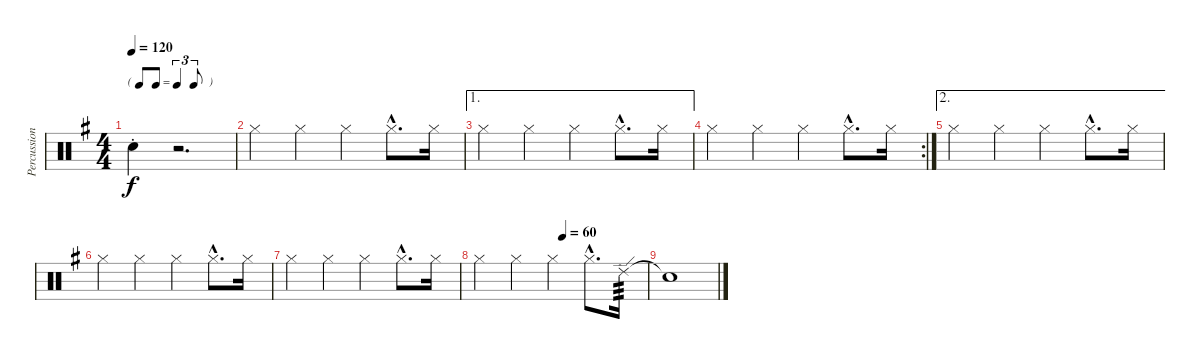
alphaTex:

\track ("Percussion" "Percussion") {instrument percussion}
\staff {score}
\articulation defaults
\ts (4 4)
\tf triplet8th
\tempo 120
\clef neutral
\ks g "Snare (hit) 2"{st}.4{dy f}
r.2{d} |
"Hi-Hat (closed)".4 "Hi-Hat (closed)".4 "Hi-Hat (closed)".4 "Hi-Hat (closed)"{hac}.8{d} "Hi-Hat (closed)".16 |
\ae 1 "Hi-Hat (closed)".4 "Hi-Hat (closed)".4 "Hi-Hat (closed)".4 "Hi-Hat (closed)"{hac}.8{d} "Hi-Hat (closed)".16
|
\rc 2 "Hi-Hat (closed)".4 "Hi-Hat (closed)".4 "Hi-Hat (closed)".4 "Hi-Hat (closed)"{hac}.8{d} "Hi-Hat (closed)".16
|
\ae 2 "Hi-Hat (closed)".4 "Hi-Hat (closed)".4 "Hi-Hat (closed)".4 "Hi-Hat (closed)"{hac}.8{d} "Hi-Hat (closed)".16
|
"Hi-Hat (closed)".4 "Hi-Hat (closed)".4 "Hi-Hat (closed)".4 "Hi-Hat (closed)"{hac}.8{d} "Hi-Hat (closed)".16 |
"Hi-Hat (closed)".4 "Hi-Hat (closed)".4 "Hi-Hat (closed)".4 "Hi-Hat (closed)"{hac}.8{d} "Hi-Hat (closed)".16 |
\tempo (60 0.5)
"Hi-Hat (closed)".4 "Hi-Hat (closed)".4 "Hi-Hat (closed)".4 "Hi-Hat (closed)"{hac}.8{d} "Ride (edge) 2".16{tp 3} |
"Snare (hit)"{t}.1
